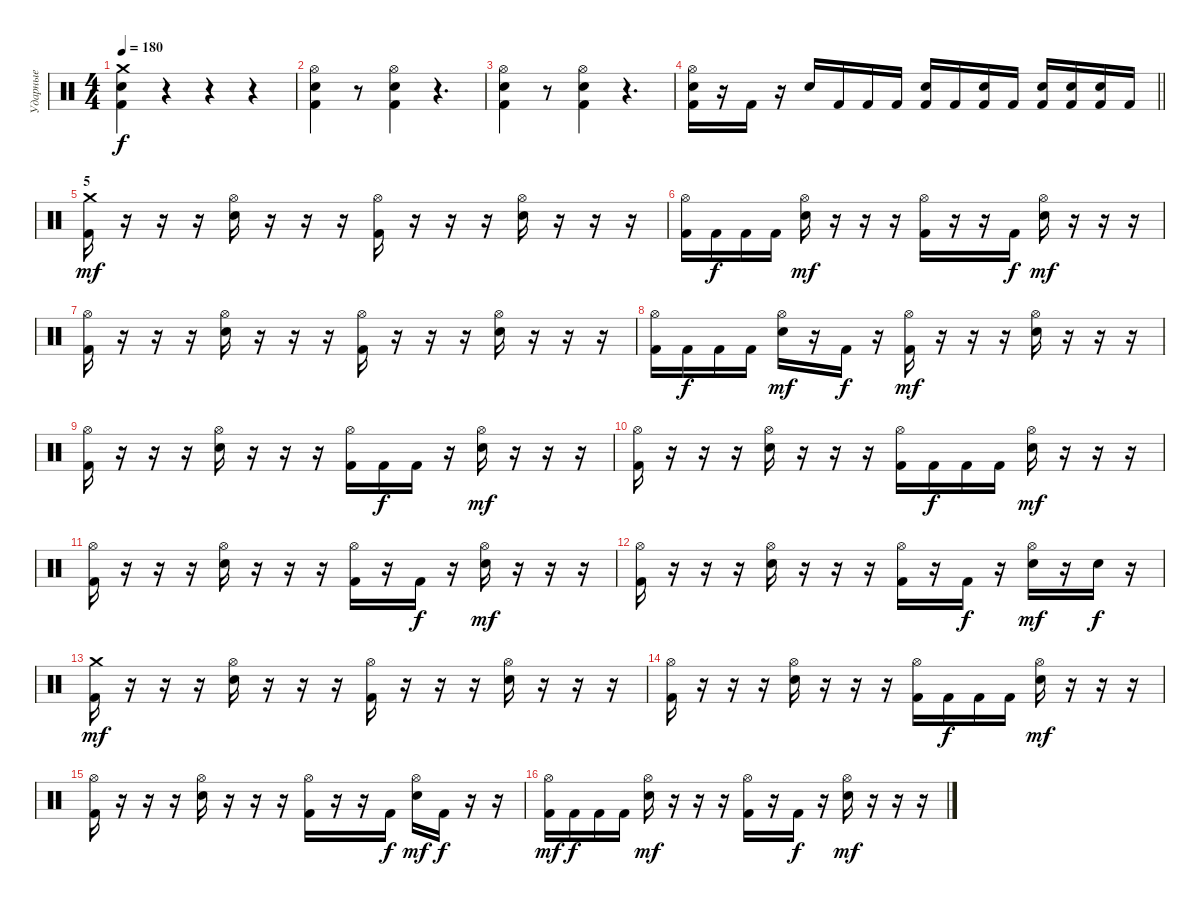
\track ("Ударные" "Ударные") {instrument percussion}
\staff {score}
\articulation defaults
\ts (4 4)
\tempo 180
\clef neutral
\ks c
("Crash medium (hit)" "Snare (hit) 2" "Kick (hit) 2").4{dy f} r.4 r.4 r.4 |
("Hi-Hat (open)" "Snare (hit) 2" "Kick (hit) 2").4 r.8 ("Hi-Hat (open)" "Snare (hit) 2" "Kick (hit) 2").4 r.4{d} |
("Hi-Hat (open)" "Snare (hit) 2" "Kick (hit) 2").4 r.8 ("Hi-Hat (open)" "Snare (hit) 2" "Kick (hit) 2").4 r.4{d} |
\barLineRight lightlight
("Hi-Hat (open)" "Snare (hit) 2" "Kick (hit) 2").16 r.16 "Kick (hit) 2".16 r.16 "Snare (hit) 2".16 "Kick (hit) 2".16 "Kick (hit) 2".16 "Kick (hit) 2".16 ("Snare (hit) 2" "Kick (hit) 2").16 "Kick (hit) 2".16 ("Snare (hit) 2" "Kick (hit) 2").16 "Kick (hit) 2".16 ("Snare (hit) 2" "Kick (hit) 2").16 ("Snare (hit) 2" "Kick (hit) 2").16 ("Snare (hit) 2" "Kick (hit) 2").16 "Kick (hit) 2".16 |
\section ("" "5")
("Crash medium (hit)" "Kick (hit) 2").16{dy mf} r.16 r.16 r.16 ("Hi-Hat (open)" "Snare (hit) 2").16 r.16 r.16 r.16 ("Hi-Hat (open)" "Kick (hit) 2").16 r.16 r.16 r.16 ("Hi-Hat (open)" "Snare (hit) 2").16 r.16 r.16 r.16 |
("Hi-Hat (open)" "Kick (hit) 2").16 "Kick (hit) 2".16{dy f} "Kick (hit) 2".16 "Kick (hit) 2".16 ("Hi-Hat (open)" "Snare (hit) 2").16{dy mf} r.16 r.16 r.16 ("Hi-Hat (open)" "Kick (hit) 2").16 r.16 r.16 "Kick (hit) 2".16{dy f} ("Hi-Hat (open)" "Snare (hit) 2").16{dy mf} r.16 r.16 r.16 |
("Hi-Hat (open)" "Kick (hit) 2").16 r.16 r.16 r.16 ("Hi-Hat (open)" "Snare (hit) 2").16 r.16 r.16 r.16 ("Hi-Hat (open)" "Kick (hit) 2").16 r.16 r.16 r.16 ("Hi-Hat (open)" "Snare (hit) 2").16 r.16 r.16 r.16 |
("Hi-Hat (open)" "Kick (hit) 2").16 "Kick (hit) 2".16{dy f} "Kick (hit) 2".16 "Kick (hit) 2".16 ("Hi-Hat (open)" "Snare (hit) 2").16{dy mf} r.16 "Kick (hit) 2".16{dy f} r.16 ("Hi-Hat (open)" "Kick (hit) 2").16{dy mf} r.16 r.16 r.16 ("Hi-Hat (open)" "Snare (hit) 2").16 r.16 r.16 r.16 |
("Hi-Hat (open)" "Kick (hit) 2").16 r.16 r.16 r.16 ("Hi-Hat (open)" "Snare (hit) 2").16 r.16 r.16 r.16 ("Hi-Hat (open)" "Kick (hit) 2").16 "Kick (hit) 2".16{dy f} "Kick (hit) 2".16 r.16 ("Hi-Hat (open)" "Snare (hit) 2").16{dy mf} r.16 r.16 r.16 |
("Hi-Hat (open)" "Kick (hit) 2").16 r.16 r.16 r.16 ("Hi-Hat (open)" "Snare (hit) 2").16 r.16 r.16 r.16 ("Hi-Hat (open)" "Kick (hit) 2").16 "Kick (hit) 2".16{dy f} "Kick (hit) 2".16 "Kick (hit) 2".16 ("Hi-Hat (open)" "Snare (hit) 2").16{dy mf} r.16 r.16 r.16 |
("Hi-Hat (open)" "Kick (hit) 2").16 r.16 r.16 r.16 ("Hi-Hat (open)" "Snare (hit) 2").16 r.16 r.16 r.16 ("Hi-Hat (open)" "Kick (hit) 2").16 r.16 "Kick (hit) 2".16{dy f} r.16 ("Hi-Hat (open)" "Snare (hit) 2").16{dy mf} r.16 r.16 r.16 |
("Hi-Hat (open)" "Kick (hit) 2").16 r.16 r.16 r.16 ("Hi-Hat (open)" "Snare (hit) 2").16 r.16 r.16 r.16 ("Hi-Hat (open)" "Kick (hit) 2").16 r.16 "Kick (hit) 2".16{dy f} r.16 ("Hi-Hat (open)" "Snare (hit) 2").16{dy mf} r.16 "Snare (hit) 2".16{dy f} r.16 |
("Crash medium (hit)" "Kick (hit) 2").16{dy mf} r.16 r.16 r.16 ("Hi-Hat (open)" "Snare (hit) 2").16 r.16 r.16 r.16 ("Hi-Hat (open)" "Kick (hit) 2").16 r.16 r.16 r.16 ("Hi-Hat (open)" "Snare (hit) 2").16 r.16 r.16 r.16 |
("Hi-Hat (open)" "Kick (hit) 2").16 r.16 r.16 r.16 ("Hi-Hat (open)" "Snare (hit) 2").16 r.16 r.16 r.16 ("Hi-Hat (open)" "Kick (hit) 2").16 "Kick (hit) 2".16{dy f} "Kick (hit) 2".16 "Kick (hit) 2".16 ("Hi-Hat (open)" "Snare (hit) 2").16{dy mf} r.16 r.16 r.16 |
("Hi-Hat (open)" "Kick (hit) 2").16 r.16 r.16 r.16 ("Hi-Hat (open)" "Snare (hit) 2").16 r.16 r.16 r.16 ("Hi-Hat (open)" "Kick (hit) 2").16 r.16 r.16 "Kick (hit) 2".16{dy f} ("Hi-Hat (open)" "Snare (hit) 2").16{dy mf} "Kick (hit) 2".16{dy f} r.16 r.16 |
("Hi-Hat (open)" "Kick (hit) 2").16{dy mf} "Kick (hit) 2".16{dy f} "Kick (hit) 2".16 "Kick (hit) 2".16 ("Hi-Hat (open)" "Snare (hit) 2").16{dy mf} r.16 r.16 r.16 ("Hi-Hat (open)" "Kick (hit) 2").16 r.16 "Kick (hit) 2".16{dy f} r.16 ("Hi-Hat (open)" "Snare (hit) 2").16{dy mf} r.16 r.16 r.16
